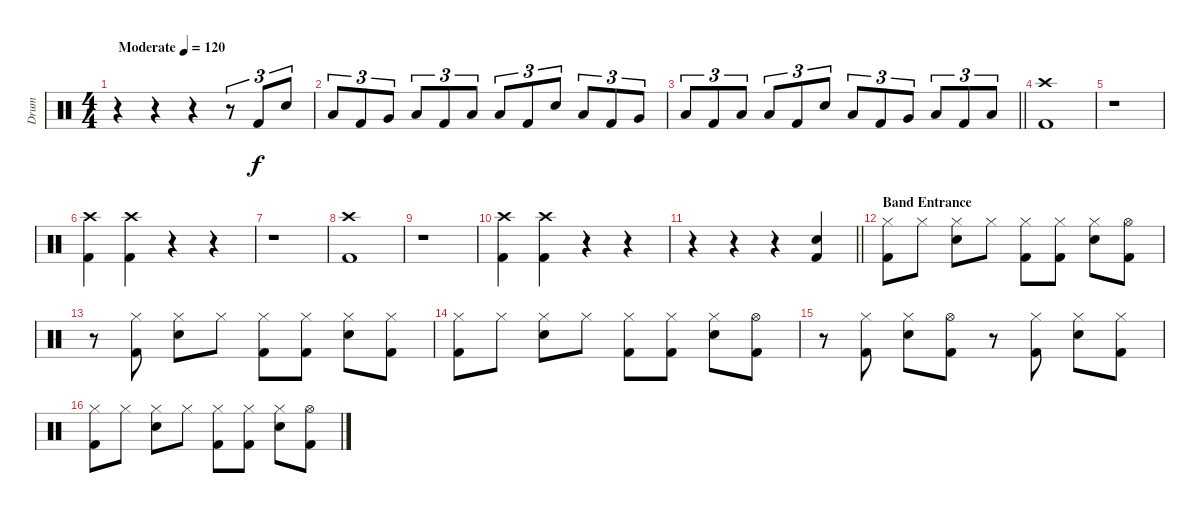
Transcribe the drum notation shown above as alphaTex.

\track ("Drum" "Drum") {instrument percussion}
\staff {score}
\articulation defaults
\ts (4 4)
\tempo (120 "Moderate")
\tempo 192
\tempo (120 "Moderate")
\clef neutral
\ks c
r.4{dy f} r.4 r.4 r.8{tu (3 2)} "Kick (hit) 2".8{tu (3 2)} "Electric Snare (hit)".8{tu (3 2)} |
"Low Tom (hit)".8{tu (3 2)} "Kick (hit) 2".8{tu (3 2)} "Very Low Tom (hit)".8{tu (3 2)} "Low Tom (hit)".8{tu (3 2)} "Kick (hit) 2".8{tu (3 2)} "Low Floor Tom (hit)".8{tu (3 2)} "Low Tom (hit)".8{tu (3 2)} "Kick (hit) 2".8{tu (3 2)} "Electric Snare (hit)".8{tu (3 2)} "Low Tom (hit)".8{tu (3 2)} "Kick (hit) 2".8{tu (3 2)} "Very Low Tom (hit)".8{tu (3 2)} |
\barLineRight lightlight "Low Tom (hit)".8{tu (3 2)} "Kick (hit) 2".8{tu (3 2)} "Low Floor Tom (hit)".8{tu (3 2)} "Low Tom (hit)".8{tu (3 2)} "Kick (hit) 2".8{tu (3 2)} "Electric Snare (hit)".8{tu (3 2)} "Low Tom (hit)".8{tu (3 2)} "Kick (hit) 2".8{tu (3 2)} "Very Low Tom (hit)".8{tu (3 2)} "Low Tom (hit)".8{tu (3 2)} "Kick (hit) 2".8{tu (3 2)} "Low Floor Tom (hit)".8{tu (3 2)}
|
("Crash high (hit)" "Kick (hit) 2").1 |
r.1 |
("Crash high (hit)" "Kick (hit) 2").4 ("Crash high (hit)" "Kick (hit) 2").4 r.4 r.4 |
r.1 |
("Crash high (hit)" "Kick (hit) 2").1 |
r.1 |
("Crash high (hit)" "Kick (hit) 2").4 ("Crash high (hit)" "Kick (hit) 2").4 r.4 r.4 |
\barLineRight lightlight
r.4 r.4 r.4 ("Electric Snare (hit)" "Kick (hit) 2").4 |
\section ("" "Band Entrance")
("Hi-Hat (closed)" "Kick (hit) 2").8 "Hi-Hat (closed)".8 ("Hi-Hat (closed)" "Electric Snare (hit)").8 "Hi-Hat (closed)".8 ("Hi-Hat (closed)" "Kick (hit) 2").8 ("Hi-Hat (closed)" "Kick (hit) 2").8 ("Hi-Hat (closed)" "Electric Snare (hit)").8 ("Hi-Hat (open)" "Kick (hit) 2").8 |
r.8 ("Hi-Hat (closed)" "Kick (hit) 2").8 ("Hi-Hat (closed)" "Electric Snare (hit)").8 "Hi-Hat (closed)".8 ("Hi-Hat (closed)" "Kick (hit) 2").8 ("Hi-Hat (closed)" "Kick (hit) 2").8 ("Hi-Hat (closed)" "Electric Snare (hit)").8 ("Hi-Hat (closed)" "Kick (hit) 2").8 |
("Hi-Hat (closed)" "Kick (hit) 2").8 "Hi-Hat (closed)".8 ("Hi-Hat (closed)" "Electric Snare (hit)").8 "Hi-Hat (closed)".8 ("Hi-Hat (closed)" "Kick (hit) 2").8 ("Hi-Hat (closed)" "Kick (hit) 2").8 ("Hi-Hat (closed)" "Electric Snare (hit)").8 ("Hi-Hat (open)" "Kick (hit) 2").8 |
r.8 ("Hi-Hat (closed)" "Kick (hit) 2").8 ("Hi-Hat (closed)" "Electric Snare (hit)").8 ("Hi-Hat (open)" "Kick (hit) 2").8 r.8 ("Hi-Hat (closed)" "Kick (hit) 2").8 ("Hi-Hat (closed)" "Electric Snare (hit)").8 ("Hi-Hat (closed)" "Kick (hit) 2").8 |
("Hi-Hat (closed)" "Kick (hit) 2").8 "Hi-Hat (closed)".8 ("Hi-Hat (closed)" "Electric Snare (hit)").8 "Hi-Hat (closed)".8 ("Hi-Hat (closed)" "Kick (hit) 2").8 ("Hi-Hat (closed)" "Kick (hit) 2").8 ("Hi-Hat (closed)" "Electric Snare (hit)").8 ("Hi-Hat (open)" "Kick (hit) 2").8
